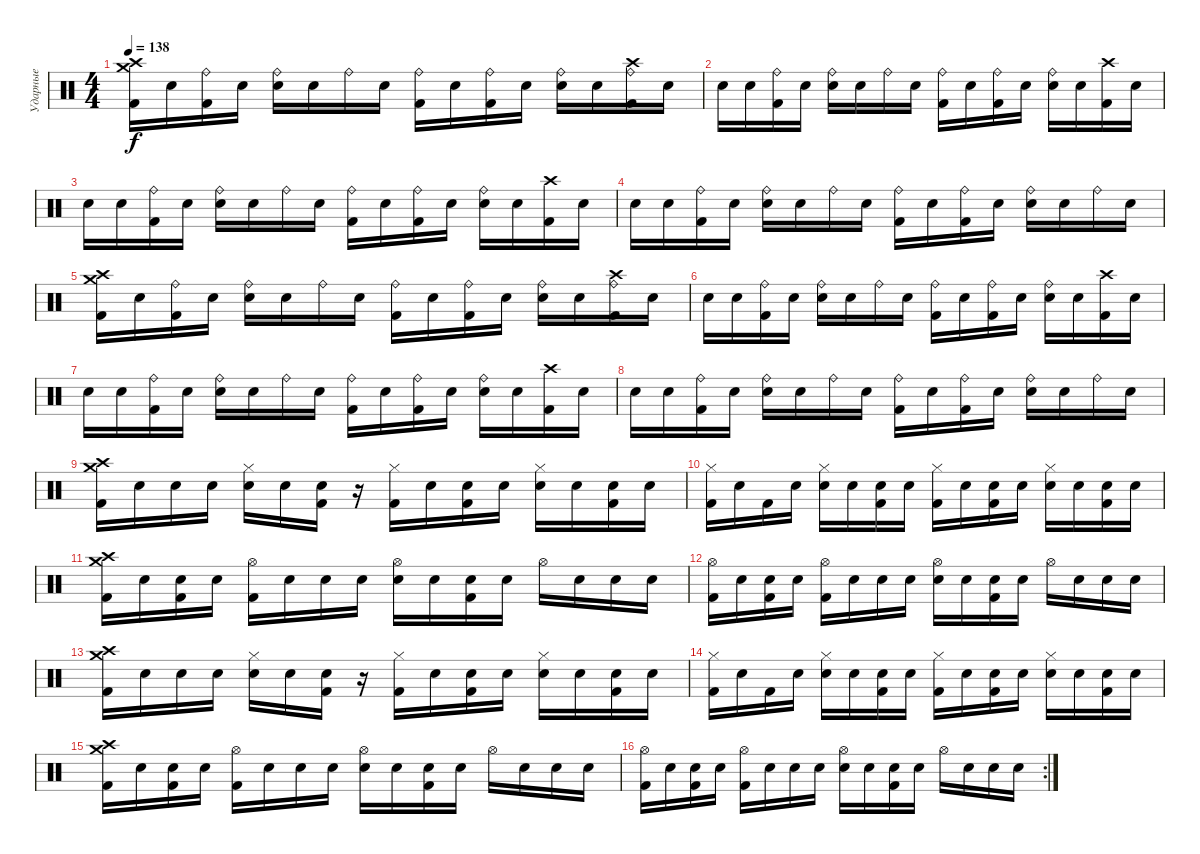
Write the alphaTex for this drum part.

\track ("Ударные" "Ударные") {instrument percussion}
\staff {score}
\articulation defaults
\ts (4 4)
\tempo 138
\clef neutral
\ks c
("Crash high (hit)" "Crash medium (hit)" "Kick (hit) 2").16{dy f} "Snare (hit)".16 ("Ride (bell)" "Kick (hit) 2").16 "Snare (hit)".16 ("Ride (bell)" "Snare (hit) 2").16 "Snare (hit)".16 "Ride (bell)".16 "Snare (hit)".16 ("Ride (bell)" "Kick (hit) 2").16 "Snare (hit)".16 ("Ride (bell)" "Kick (hit) 2").16 "Snare (hit)".16 ("Ride (bell)" "Snare (hit) 2").16 "Snare (hit)".16 ("Ride (bell)" "Crash high (hit)" "Kick (hit) 2").16 "Snare (hit)".16 |
"Snare (hit)".16 "Snare (hit)".16 ("Ride (bell)" "Kick (hit) 2").16 "Snare (hit)".16 ("Ride (bell)" "Snare (hit) 2").16 "Snare (hit)".16 "Ride (bell)".16 "Snare (hit)".16 ("Ride (bell)" "Kick (hit) 2").16 "Snare (hit)".16 ("Ride (bell)" "Kick (hit) 2").16 "Snare (hit)".16 ("Ride (bell)" "Snare (hit) 2").16 "Snare (hit)".16 ("Crash high (hit)" "Kick (hit) 2").16 "Snare (hit)".16 |
"Snare (hit)".16 "Snare (hit)".16 ("Ride (bell)" "Kick (hit) 2").16 "Snare (hit)".16 ("Ride (bell)" "Snare (hit) 2").16 "Snare (hit)".16 "Ride (bell)".16 "Snare (hit)".16 ("Ride (bell)" "Kick (hit) 2").16 "Snare (hit)".16 ("Ride (bell)" "Kick (hit) 2").16 "Snare (hit)".16 ("Ride (bell)" "Snare (hit) 2").16 "Snare (hit)".16 ("Crash high (hit)" "Kick (hit) 2").16 "Snare (hit)".16 |
"Snare (hit)".16 "Snare (hit)".16 ("Ride (bell)" "Kick (hit) 2").16 "Snare (hit)".16 ("Ride (bell)" "Snare (hit) 2").16 "Snare (hit)".16 "Ride (bell)".16 "Snare (hit)".16 ("Ride (bell)" "Kick (hit) 2").16 "Snare (hit)".16 ("Ride (bell)" "Kick (hit) 2").16 "Snare (hit)".16 ("Ride (bell)" "Snare (hit) 2").16 "Snare (hit)".16 "Ride (bell)".16 "Snare (hit)".16 |
("Crash high (hit)" "Crash medium (hit)" "Kick (hit) 2").16 "Snare (hit)".16 ("Ride (bell)" "Kick (hit) 2").16 "Snare (hit)".16 ("Ride (bell)" "Snare (hit) 2").16 "Snare (hit)".16 "Ride (bell)".16 "Snare (hit)".16 ("Ride (bell)" "Kick (hit) 2").16 "Snare (hit)".16 ("Ride (bell)" "Kick (hit) 2").16 "Snare (hit)".16 ("Ride (bell)" "Snare (hit) 2").16 "Snare (hit)".16 ("Ride (bell)" "Crash high (hit)" "Kick (hit) 2").16 "Snare (hit)".16 |
"Snare (hit)".16 "Snare (hit)".16 ("Ride (bell)" "Kick (hit) 2").16 "Snare (hit)".16 ("Ride (bell)" "Snare (hit) 2").16 "Snare (hit)".16 "Ride (bell)".16 "Snare (hit)".16 ("Ride (bell)" "Kick (hit) 2").16 "Snare (hit)".16 ("Ride (bell)" "Kick (hit) 2").16 "Snare (hit)".16 ("Ride (bell)" "Snare (hit) 2").16 "Snare (hit)".16 ("Crash high (hit)" "Kick (hit) 2").16 "Snare (hit)".16 |
"Snare (hit)".16 "Snare (hit)".16 ("Ride (bell)" "Kick (hit) 2").16 "Snare (hit)".16 ("Ride (bell)" "Snare (hit) 2").16 "Snare (hit)".16 "Ride (bell)".16 "Snare (hit)".16 ("Ride (bell)" "Kick (hit) 2").16 "Snare (hit)".16 ("Ride (bell)" "Kick (hit) 2").16 "Snare (hit)".16 ("Ride (bell)" "Snare (hit) 2").16 "Snare (hit)".16 ("Crash high (hit)" "Kick (hit) 2").16 "Snare (hit)".16 |
"Snare (hit)".16 "Snare (hit)".16 ("Ride (bell)" "Kick (hit) 2").16 "Snare (hit)".16 ("Ride (bell)" "Snare (hit) 2").16 "Snare (hit)".16 "Ride (bell)".16 "Snare (hit)".16 ("Ride (bell)" "Kick (hit) 2").16 "Snare (hit)".16 ("Ride (bell)" "Kick (hit) 2").16 "Snare (hit)".16 ("Ride (bell)" "Snare (hit) 2").16 "Snare (hit)".16 "Ride (bell)".16 "Snare (hit)".16 |
("Crash high (hit)" "Crash medium (hit)" "Kick (hit) 2").16 "Snare (hit)".16 "Snare (hit)".16 "Snare (hit)".16 ("Hi-Hat (closed)" "Snare (hit) 2").16 "Snare (hit)".16 ("Snare (hit)" "Kick (hit) 2").16 r.16 ("Hi-Hat (closed)" "Kick (hit) 2").16 "Snare (hit)".16 ("Snare (hit)" "Kick (hit) 2").16 "Snare (hit)".16 ("Hi-Hat (closed)" "Snare (hit) 2").16 "Snare (hit)".16 ("Snare (hit)" "Kick (hit) 2").16 "Snare (hit)".16 |
("Hi-Hat (closed)" "Kick (hit) 2").16 "Snare (hit)".16 "Kick (hit) 2".16 "Snare (hit)".16 ("Hi-Hat (closed)" "Snare (hit) 2").16 "Snare (hit)".16 ("Snare (hit)" "Kick (hit) 2").16 "Snare (hit)".16 ("Hi-Hat (closed)" "Kick (hit) 2").16 "Snare (hit)".16 ("Snare (hit)" "Kick (hit) 2").16 "Snare (hit)".16 ("Hi-Hat (closed)" "Snare (hit) 2").16 "Snare (hit)".16 ("Snare (hit)" "Kick (hit) 2").16 "Snare (hit)".16 |
("Crash medium (hit)" "Crash high (hit)" "Kick (hit) 2").16 "Snare (hit)".16 ("Snare (hit)" "Kick (hit) 2").16 "Snare (hit)".16 ("Hi-Hat (open)" "Kick (hit) 2").16 "Snare (hit)".16 "Snare (hit)".16 "Snare (hit)".16 ("Hi-Hat (open)" "Snare (hit) 2").16 "Snare (hit)".16 ("Snare (hit)" "Kick (hit) 2").16 "Snare (hit)".16 "Hi-Hat (open)".16 "Snare (hit)".16 "Snare (hit)".16 "Snare (hit)".16 |
("Hi-Hat (open)" "Kick (hit) 2").16 "Snare (hit)".16 ("Snare (hit)" "Kick (hit) 2").16 "Snare (hit)".16 ("Hi-Hat (open)" "Kick (hit) 2").16 "Snare (hit)".16 "Snare (hit)".16 "Snare (hit)".16 ("Hi-Hat (open)" "Snare (hit) 2").16 "Snare (hit)".16 ("Snare (hit)" "Kick (hit) 2").16 "Snare (hit)".16 "Hi-Hat (open)".16 "Snare (hit)".16 "Snare (hit)".16 "Snare (hit)".16 |
("Crash high (hit)" "Crash medium (hit)" "Kick (hit) 2").16 "Snare (hit)".16 "Snare (hit)".16 "Snare (hit)".16 ("Hi-Hat (closed)" "Snare (hit) 2").16 "Snare (hit)".16 ("Snare (hit)" "Kick (hit) 2").16 r.16 ("Hi-Hat (closed)" "Kick (hit) 2").16 "Snare (hit)".16 ("Snare (hit)" "Kick (hit) 2").16 "Snare (hit)".16 ("Hi-Hat (closed)" "Snare (hit) 2").16 "Snare (hit)".16 ("Snare (hit)" "Kick (hit) 2").16 "Snare (hit)".16 |
("Hi-Hat (closed)" "Kick (hit) 2").16 "Snare (hit)".16 "Kick (hit) 2".16 "Snare (hit)".16 ("Hi-Hat (closed)" "Snare (hit) 2").16 "Snare (hit)".16 ("Snare (hit)" "Kick (hit) 2").16 "Snare (hit)".16 ("Hi-Hat (closed)" "Kick (hit) 2").16 "Snare (hit)".16 ("Snare (hit)" "Kick (hit) 2").16 "Snare (hit)".16 ("Hi-Hat (closed)" "Snare (hit) 2").16 "Snare (hit)".16 ("Snare (hit)" "Kick (hit) 2").16 "Snare (hit)".16 |
("Crash medium (hit)" "Crash high (hit)" "Kick (hit) 2").16 "Snare (hit)".16 ("Snare (hit)" "Kick (hit) 2").16 "Snare (hit)".16 ("Hi-Hat (open)" "Kick (hit) 2").16 "Snare (hit)".16 "Snare (hit)".16 "Snare (hit)".16 ("Hi-Hat (open)" "Snare (hit) 2").16 "Snare (hit)".16 ("Snare (hit)" "Kick (hit) 2").16 "Snare (hit)".16 "Hi-Hat (open)".16 "Snare (hit)".16 "Snare (hit)".16 "Snare (hit)".16 |
\rc 2
("Hi-Hat (open)" "Kick (hit) 2").16 "Snare (hit)".16 ("Snare (hit)" "Kick (hit) 2").16 "Snare (hit)".16 ("Hi-Hat (open)" "Kick (hit) 2").16 "Snare (hit)".16 "Snare (hit)".16 "Snare (hit)".16 ("Hi-Hat (open)" "Snare (hit) 2").16 "Snare (hit)".16 ("Snare (hit)" "Kick (hit) 2").16 "Snare (hit)".16 "Hi-Hat (open)".16 "Snare (hit)".16 "Snare (hit)".16 "Snare (hit)".16
